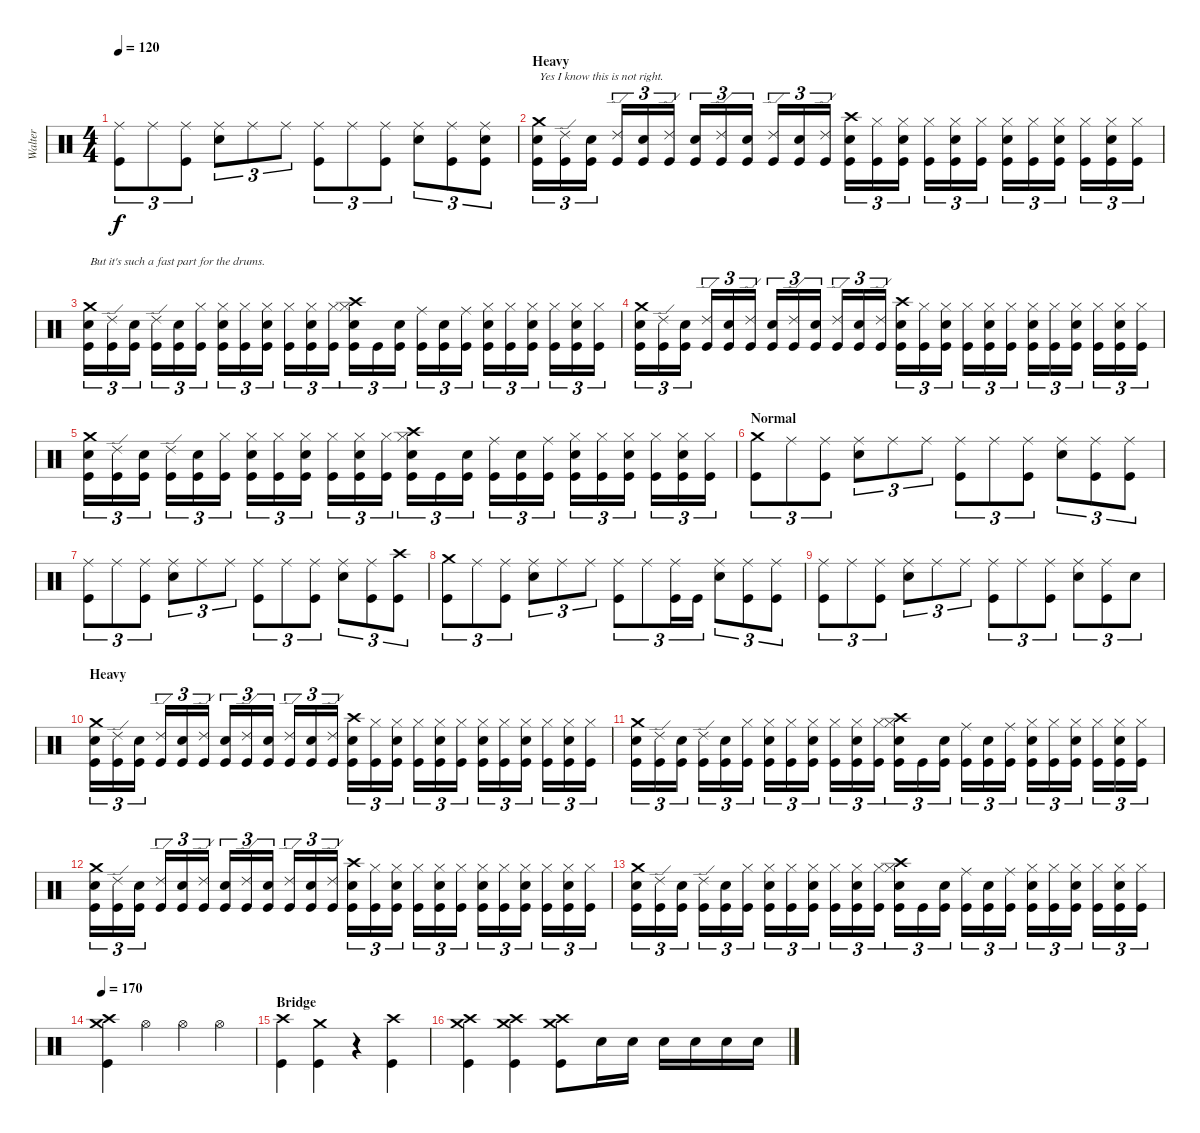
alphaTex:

\track ("Walter" "Walter") {instrument percussion}
\staff {score}
\articulation defaults
\ts (4 4)
\tempo 120
\clef neutral
\ks c
("Ride (middle)" "Kick (hit)").8{tu (3 2) dy f} "Ride (middle)".8{tu (3 2)} ("Ride (middle)" "Kick (hit)").8{tu (3 2)} ("Electric Snare (hit)" "Ride (middle)").8{tu (3 2)} "Ride (middle)".8{tu (3 2)} "Ride (middle)".8{tu (3 2)} ("Ride (middle)" "Kick (hit)").8{tu (3 2)} "Ride (middle)".8{tu (3 2)} ("Ride (middle)" "Kick (hit)").8{tu (3 2)} ("Electric Snare (hit)" "Ride (middle)").8{tu (3 2)} ("Ride (middle)" "Kick (hit)").8{tu (3 2)} ("Electric Snare (hit)" "Ride (middle)" "Kick (hit)").8{tu (3 2)} |
\section ("" "Heavy")
("Crash medium (hit)" "Electric Snare (hit)" "Kick (hit)").16{tu (3 2) txt "Yes I know this is not right."} ("Ride (edge) 2" "Kick (hit)").16{tu (3 2)} ("Electric Snare (hit)" "Kick (hit)").16{tu (3 2)} ("Ride (edge) 2" "Kick (hit)").16{tu (3 2)} ("Electric Snare (hit)" "Kick (hit)").16{tu (3 2)} ("Ride (edge) 2" "Kick (hit)").16{tu (3 2)} ("Electric Snare (hit)" "Kick (hit)").16{tu (3 2)} ("Ride (edge) 2" "Kick (hit)").16{tu (3 2)} ("Electric Snare (hit)" "Kick (hit)").16{tu (3 2)} ("Ride (edge) 2" "Kick (hit)").16{tu (3 2)} ("Electric Snare (hit)" "Kick (hit)").16{tu (3 2)} ("Ride (edge) 2" "Kick (hit)").16{tu (3 2)} ("Crash high (hit)" "Electric Snare (hit)" "Kick (hit)").16{tu (3 2)} ("Hi-Hat (closed)" "Kick (hit)").16{tu (3 2)} ("Electric Snare (hit)" "Hi-Hat (closed)" "Kick (hit)").16{tu (3 2)} ("Hi-Hat (closed)" "Kick (hit)").16{tu (3 2)} ("Electric Snare (hit)" "Hi-Hat (closed)" "Kick (hit)").16{tu (3 2)} ("Hi-Hat (closed)" "Kick (hit)").16{tu (3 2)} ("Electric Snare (hit)" "Hi-Hat (closed)" "Kick (hit)").16{tu (3 2)} ("Hi-Hat (closed)" "Kick (hit)").16{tu (3 2)} ("Electric Snare (hit)" "Hi-Hat (closed)" "Kick (hit)").16{tu (3 2)} ("Hi-Hat (closed)" "Kick (hit)").16{tu (3 2)} ("Electric Snare (hit)" "Hi-Hat (closed)" "Kick (hit)").16{tu (3 2)} ("Hi-Hat (closed)" "Kick (hit)").16{tu (3 2)} |
("Crash medium (hit)" "Electric Snare (hit)" "Kick (hit)").16{tu (3 2) txt "But it's such a fast part for the drums."} ("Ride (edge) 2" "Kick (hit)").16{tu (3 2)} ("Electric Snare (hit)" "Kick (hit)").16{tu (3 2)} ("Ride (edge) 2" "Kick (hit)").16{tu (3 2)} ("Electric Snare (hit)" "Kick (hit)").16{tu (3 2)} ("Hi-Hat (closed)" "Kick (hit)").16{tu (3 2)} ("Electric Snare (hit)" "Hi-Hat (closed)" "Kick (hit)").16{tu (3 2)} ("Hi-Hat (closed)" "Kick (hit)").16{tu (3 2)} ("Electric Snare (hit)" "Hi-Hat (closed)" "Kick (hit)").16{tu (3 2)} ("Hi-Hat (closed)" "Kick (hit)").16{tu (3 2)} ("Electric Snare (hit)" "Hi-Hat (closed)" "Kick (hit)").16{tu (3 2)} ("Hi-Hat (closed)" "Kick (hit)").16{tu (3 2)} ("Crash high (hit)" "Electric Snare (hit)" "Hi-Hat (closed)" "Kick (hit)").16{tu (3 2)} "Kick (hit)".16{tu (3 2)} ("Electric Snare (hit)" "Kick (hit)").16{tu (3 2)} ("Ride (middle)" "Kick (hit)").16{tu (3 2)} ("Electric Snare (hit)" "Kick (hit)").16{tu (3 2)} ("Ride (middle)" "Kick (hit)").16{tu (3 2)} ("Electric Snare (hit)" "Hi-Hat (closed)" "Kick (hit)").16{tu (3 2)} ("Hi-Hat (closed)" "Kick (hit)").16{tu (3 2)} ("Electric Snare (hit)" "Hi-Hat (closed)" "Kick (hit)").16{tu (3 2)} ("Hi-Hat (closed)" "Kick (hit)").16{tu (3 2)} ("Electric Snare (hit)" "Hi-Hat (closed)" "Kick (hit)").16{tu (3 2)} ("Hi-Hat (closed)" "Kick (hit)").16{tu (3 2)} |
("Crash medium (hit)" "Electric Snare (hit)" "Kick (hit)").16{tu (3 2)} ("Ride (edge) 2" "Kick (hit)").16{tu (3 2)} ("Electric Snare (hit)" "Kick (hit)").16{tu (3 2)} ("Ride (edge) 2" "Kick (hit)").16{tu (3 2)} ("Electric Snare (hit)" "Kick (hit)").16{tu (3 2)} ("Ride (edge) 2" "Kick (hit)").16{tu (3 2)} ("Electric Snare (hit)" "Kick (hit)").16{tu (3 2)} ("Ride (edge) 2" "Kick (hit)").16{tu (3 2)} ("Electric Snare (hit)" "Kick (hit)").16{tu (3 2)} ("Ride (edge) 2" "Kick (hit)").16{tu (3 2)} ("Electric Snare (hit)" "Kick (hit)").16{tu (3 2)} ("Ride (edge) 2" "Kick (hit)").16{tu (3 2)} ("Crash high (hit)" "Electric Snare (hit)" "Kick (hit)").16{tu (3 2)} ("Hi-Hat (closed)" "Kick (hit)").16{tu (3 2)} ("Electric Snare (hit)" "Hi-Hat (closed)" "Kick (hit)").16{tu (3 2)} ("Hi-Hat (closed)" "Kick (hit)").16{tu (3 2)} ("Electric Snare (hit)" "Hi-Hat (closed)" "Kick (hit)").16{tu (3 2)} ("Hi-Hat (closed)" "Kick (hit)").16{tu (3 2)} ("Electric Snare (hit)" "Hi-Hat (closed)" "Kick (hit)").16{tu (3 2)} ("Hi-Hat (closed)" "Kick (hit)").16{tu (3 2)} ("Electric Snare (hit)" "Hi-Hat (closed)" "Kick (hit)").16{tu (3 2)} ("Hi-Hat (closed)" "Kick (hit)").16{tu (3 2)} ("Electric Snare (hit)" "Hi-Hat (closed)" "Kick (hit)").16{tu (3 2)} ("Hi-Hat (closed)" "Kick (hit)").16{tu (3 2)} |
("Crash medium (hit)" "Electric Snare (hit)" "Kick (hit)").16{tu (3 2)} ("Ride (edge) 2" "Kick (hit)").16{tu (3 2)} ("Electric Snare (hit)" "Kick (hit)").16{tu (3 2)} ("Ride (edge) 2" "Kick (hit)").16{tu (3 2)} ("Electric Snare (hit)" "Kick (hit)").16{tu (3 2)} ("Hi-Hat (closed)" "Kick (hit)").16{tu (3 2)} ("Electric Snare (hit)" "Hi-Hat (closed)" "Kick (hit)").16{tu (3 2)} ("Hi-Hat (closed)" "Kick (hit)").16{tu (3 2)} ("Electric Snare (hit)" "Hi-Hat (closed)" "Kick (hit)").16{tu (3 2)} ("Hi-Hat (closed)" "Kick (hit)").16{tu (3 2)} ("Electric Snare (hit)" "Hi-Hat (closed)" "Kick (hit)").16{tu (3 2)} ("Hi-Hat (closed)" "Kick (hit)").16{tu (3 2)} ("Crash high (hit)" "Electric Snare (hit)" "Hi-Hat (closed)" "Kick (hit)").16{tu (3 2)} "Kick (hit)".16{tu (3 2)} ("Electric Snare (hit)" "Kick (hit)").16{tu (3 2)} ("Ride (middle)" "Kick (hit)").16{tu (3 2)} ("Electric Snare (hit)" "Kick (hit)").16{tu (3 2)} ("Ride (middle)" "Kick (hit)").16{tu (3 2)} ("Electric Snare (hit)" "Hi-Hat (closed)" "Kick (hit)").16{tu (3 2)} ("Hi-Hat (closed)" "Kick (hit)").16{tu (3 2)} ("Electric Snare (hit)" "Hi-Hat (closed)" "Kick (hit)").16{tu (3 2)} ("Hi-Hat (closed)" "Kick (hit)").16{tu (3 2)} ("Electric Snare (hit)" "Hi-Hat (closed)" "Kick (hit)").16{tu (3 2)} ("Hi-Hat (closed)" "Kick (hit)").16{tu (3 2)} |
\section ("" "Normal")
("Crash medium (hit)" "Kick (hit)").8{tu (3 2)} "Ride (middle)".8{tu (3 2)} ("Ride (middle)" "Kick (hit)").8{tu (3 2)} ("Electric Snare (hit)" "Ride (middle)").8{tu (3 2)} "Ride (middle)".8{tu (3 2)} "Ride (middle)".8{tu (3 2)} ("Ride (middle)" "Kick (hit)").8{tu (3 2)} "Ride (middle)".8{tu (3 2)} ("Ride (middle)" "Kick (hit)").8{tu (3 2)} ("Electric Snare (hit)" "Ride (middle)").8{tu (3 2)} ("Ride (middle)" "Kick (hit)").8{tu (3 2)} ("Ride (middle)" "Kick (hit)").8{tu (3 2)} |
("Ride (middle)" "Kick (hit)").8{tu (3 2)} "Ride (middle)".8{tu (3 2)} ("Ride (middle)" "Kick (hit)").8{tu (3 2)} ("Electric Snare (hit)" "Ride (middle)").8{tu (3 2)} "Ride (middle)".8{tu (3 2)} "Ride (middle)".8{tu (3 2)} ("Ride (middle)" "Kick (hit)").8{tu (3 2)} "Ride (middle)".8{tu (3 2)} ("Ride (middle)" "Kick (hit)").8{tu (3 2)} ("Electric Snare (hit)" "Ride (middle)").8{tu (3 2)} ("Ride (middle)" "Kick (hit)").8{tu (3 2)} ("Crash high (hit)" "Kick (hit)").8{tu (3 2)} |
("Crash medium (hit)" "Kick (hit)").8{tu (3 2)} "Ride (middle)".8{tu (3 2)} ("Ride (middle)" "Kick (hit)").8{tu (3 2)} ("Electric Snare (hit)" "Ride (middle)").8{tu (3 2)} "Ride (middle)".8{tu (3 2)} "Ride (middle)".8{tu (3 2)} ("Ride (middle)" "Kick (hit)").8{tu (3 2)} "Ride (middle)".8{tu (3 2)} ("Ride (middle)" "Kick (hit)").16{tu (3 2)} "Kick (hit)".16{tu (3 2)} ("Electric Snare (hit)" "Ride (middle)").8{tu (3 2)} ("Ride (middle)" "Kick (hit)").8{tu (3 2)} ("Ride (middle)" "Kick (hit)").8{tu (3 2)} |
("Ride (middle)" "Kick (hit)").8{tu (3 2)} "Ride (middle)".8{tu (3 2)} ("Ride (middle)" "Kick (hit)").8{tu (3 2)} ("Electric Snare (hit)" "Ride (middle)").8{tu (3 2)} "Ride (middle)".8{tu (3 2)} "Ride (middle)".8{tu (3 2)} ("Ride (middle)" "Kick (hit)").8{tu (3 2)} "Ride (middle)".8{tu (3 2)} ("Ride (middle)" "Kick (hit)").8{tu (3 2)} ("Electric Snare (hit)" "Ride (middle)").8{tu (3 2)} ("Ride (middle)" "Kick (hit)").8{tu (3 2)} "Electric Snare (hit)".8{tu (3 2)} |
\section ("" "Heavy")
("Crash medium (hit)" "Electric Snare (hit)" "Kick (hit)").16{tu (3 2)} ("Ride (edge) 2" "Kick (hit)").16{tu (3 2)} ("Electric Snare (hit)" "Kick (hit)").16{tu (3 2)} ("Ride (edge) 2" "Kick (hit)").16{tu (3 2)} ("Electric Snare (hit)" "Kick (hit)").16{tu (3 2)} ("Ride (edge) 2" "Kick (hit)").16{tu (3 2)} ("Electric Snare (hit)" "Kick (hit)").16{tu (3 2)} ("Ride (edge) 2" "Kick (hit)").16{tu (3 2)} ("Electric Snare (hit)" "Kick (hit)").16{tu (3 2)} ("Ride (edge) 2" "Kick (hit)").16{tu (3 2)} ("Electric Snare (hit)" "Kick (hit)").16{tu (3 2)} ("Ride (edge) 2" "Kick (hit)").16{tu (3 2)} ("Crash high (hit)" "Electric Snare (hit)" "Kick (hit)").16{tu (3 2)} ("Hi-Hat (closed)" "Kick (hit)").16{tu (3 2)} ("Electric Snare (hit)" "Hi-Hat (closed)" "Kick (hit)").16{tu (3 2)} ("Hi-Hat (closed)" "Kick (hit)").16{tu (3 2)} ("Electric Snare (hit)" "Hi-Hat (closed)" "Kick (hit)").16{tu (3 2)} ("Hi-Hat (closed)" "Kick (hit)").16{tu (3 2)} ("Electric Snare (hit)" "Hi-Hat (closed)" "Kick (hit)").16{tu (3 2)} ("Hi-Hat (closed)" "Kick (hit)").16{tu (3 2)} ("Electric Snare (hit)" "Hi-Hat (closed)" "Kick (hit)").16{tu (3 2)} ("Hi-Hat (closed)" "Kick (hit)").16{tu (3 2)} ("Electric Snare (hit)" "Hi-Hat (closed)" "Kick (hit)").16{tu (3 2)} ("Hi-Hat (closed)" "Kick (hit)").16{tu (3 2)} |
("Crash medium (hit)" "Electric Snare (hit)" "Kick (hit)").16{tu (3 2)} ("Ride (edge) 2" "Kick (hit)").16{tu (3 2)} ("Electric Snare (hit)" "Kick (hit)").16{tu (3 2)} ("Ride (edge) 2" "Kick (hit)").16{tu (3 2)} ("Electric Snare (hit)" "Kick (hit)").16{tu (3 2)} ("Hi-Hat (closed)" "Kick (hit)").16{tu (3 2)} ("Electric Snare (hit)" "Hi-Hat (closed)" "Kick (hit)").16{tu (3 2)} ("Hi-Hat (closed)" "Kick (hit)").16{tu (3 2)} ("Electric Snare (hit)" "Hi-Hat (closed)" "Kick (hit)").16{tu (3 2)} ("Hi-Hat (closed)" "Kick (hit)").16{tu (3 2)} ("Electric Snare (hit)" "Hi-Hat (closed)" "Kick (hit)").16{tu (3 2)} ("Hi-Hat (closed)" "Kick (hit)").16{tu (3 2)} ("Crash high (hit)" "Electric Snare (hit)" "Hi-Hat (closed)" "Kick (hit)").16{tu (3 2)} "Kick (hit)".16{tu (3 2)} ("Electric Snare (hit)" "Kick (hit)").16{tu (3 2)} ("Ride (middle)" "Kick (hit)").16{tu (3 2)} ("Electric Snare (hit)" "Kick (hit)").16{tu (3 2)} ("Ride (middle)" "Kick (hit)").16{tu (3 2)} ("Electric Snare (hit)" "Hi-Hat (closed)" "Kick (hit)").16{tu (3 2)} ("Hi-Hat (closed)" "Kick (hit)").16{tu (3 2)} ("Electric Snare (hit)" "Hi-Hat (closed)" "Kick (hit)").16{tu (3 2)} ("Hi-Hat (closed)" "Kick (hit)").16{tu (3 2)} ("Electric Snare (hit)" "Hi-Hat (closed)" "Kick (hit)").16{tu (3 2)} ("Hi-Hat (closed)" "Kick (hit)").16{tu (3 2)} |
("Crash medium (hit)" "Electric Snare (hit)" "Kick (hit)").16{tu (3 2)} ("Ride (edge) 2" "Kick (hit)").16{tu (3 2)} ("Electric Snare (hit)" "Kick (hit)").16{tu (3 2)} ("Ride (edge) 2" "Kick (hit)").16{tu (3 2)} ("Electric Snare (hit)" "Kick (hit)").16{tu (3 2)} ("Ride (edge) 2" "Kick (hit)").16{tu (3 2)} ("Electric Snare (hit)" "Kick (hit)").16{tu (3 2)} ("Ride (edge) 2" "Kick (hit)").16{tu (3 2)} ("Electric Snare (hit)" "Kick (hit)").16{tu (3 2)} ("Ride (edge) 2" "Kick (hit)").16{tu (3 2)} ("Electric Snare (hit)" "Kick (hit)").16{tu (3 2)} ("Ride (edge) 2" "Kick (hit)").16{tu (3 2)} ("Crash high (hit)" "Electric Snare (hit)" "Kick (hit)").16{tu (3 2)} ("Hi-Hat (closed)" "Kick (hit)").16{tu (3 2)} ("Electric Snare (hit)" "Hi-Hat (closed)" "Kick (hit)").16{tu (3 2)} ("Hi-Hat (closed)" "Kick (hit)").16{tu (3 2)} ("Electric Snare (hit)" "Hi-Hat (closed)" "Kick (hit)").16{tu (3 2)} ("Hi-Hat (closed)" "Kick (hit)").16{tu (3 2)} ("Electric Snare (hit)" "Hi-Hat (closed)" "Kick (hit)").16{tu (3 2)} ("Hi-Hat (closed)" "Kick (hit)").16{tu (3 2)} ("Electric Snare (hit)" "Hi-Hat (closed)" "Kick (hit)").16{tu (3 2)} ("Hi-Hat (closed)" "Kick (hit)").16{tu (3 2)} ("Electric Snare (hit)" "Hi-Hat (closed)" "Kick (hit)").16{tu (3 2)} ("Hi-Hat (closed)" "Kick (hit)").16{tu (3 2)} |
("Crash medium (hit)" "Electric Snare (hit)" "Kick (hit)").16{tu (3 2)} ("Ride (edge) 2" "Kick (hit)").16{tu (3 2)} ("Electric Snare (hit)" "Kick (hit)").16{tu (3 2)} ("Ride (edge) 2" "Kick (hit)").16{tu (3 2)} ("Electric Snare (hit)" "Kick (hit)").16{tu (3 2)} ("Hi-Hat (closed)" "Kick (hit)").16{tu (3 2)} ("Electric Snare (hit)" "Hi-Hat (closed)" "Kick (hit)").16{tu (3 2)} ("Hi-Hat (closed)" "Kick (hit)").16{tu (3 2)} ("Electric Snare (hit)" "Hi-Hat (closed)" "Kick (hit)").16{tu (3 2)} ("Hi-Hat (closed)" "Kick (hit)").16{tu (3 2)} ("Electric Snare (hit)" "Hi-Hat (closed)" "Kick (hit)").16{tu (3 2)} ("Hi-Hat (closed)" "Kick (hit)").16{tu (3 2)} ("Crash high (hit)" "Electric Snare (hit)" "Hi-Hat (closed)" "Kick (hit)").16{tu (3 2)} "Kick (hit)".16{tu (3 2)} ("Electric Snare (hit)" "Kick (hit)").16{tu (3 2)} ("Ride (middle)" "Kick (hit)").16{tu (3 2)} ("Electric Snare (hit)" "Kick (hit)").16{tu (3 2)} ("Ride (middle)" "Kick (hit)").16{tu (3 2)} ("Electric Snare (hit)" "Hi-Hat (closed)" "Kick (hit)").16{tu (3 2)} ("Hi-Hat (closed)" "Kick (hit)").16{tu (3 2)} ("Electric Snare (hit)" "Hi-Hat (closed)" "Kick (hit)").16{tu (3 2)} ("Hi-Hat (closed)" "Kick (hit)").16{tu (3 2)} ("Electric Snare (hit)" "Hi-Hat (closed)" "Kick (hit)").16{tu (3 2)} ("Hi-Hat (closed)" "Kick (hit)").16{tu (3 2)} |
\tempo 170
("Crash medium (hit)" "Crash high (hit)" "Kick (hit)").4 "Hi-Hat (open)".4 "Hi-Hat (open)".4 "Hi-Hat (open)".4 |
\section ("" "Bridge")
("Crash high (hit)" "Kick (hit)").4 ("Crash medium (hit)" "Kick (hit)").4 r.4 ("Crash high (hit)" "Kick (hit)").4 |
("Crash medium (hit)" "Crash high (hit)" "Kick (hit)").4 ("Crash high (hit)" "Crash medium (hit)" "Kick (hit)").4 ("Crash medium (hit)" "Crash high (hit)" "Kick (hit)").8 "Electric Snare (hit)".16 "Electric Snare (hit)".16 "Electric Snare (hit)".16 "Electric Snare (hit)".16 "Electric Snare (hit)".16 "Electric Snare (hit)".16
